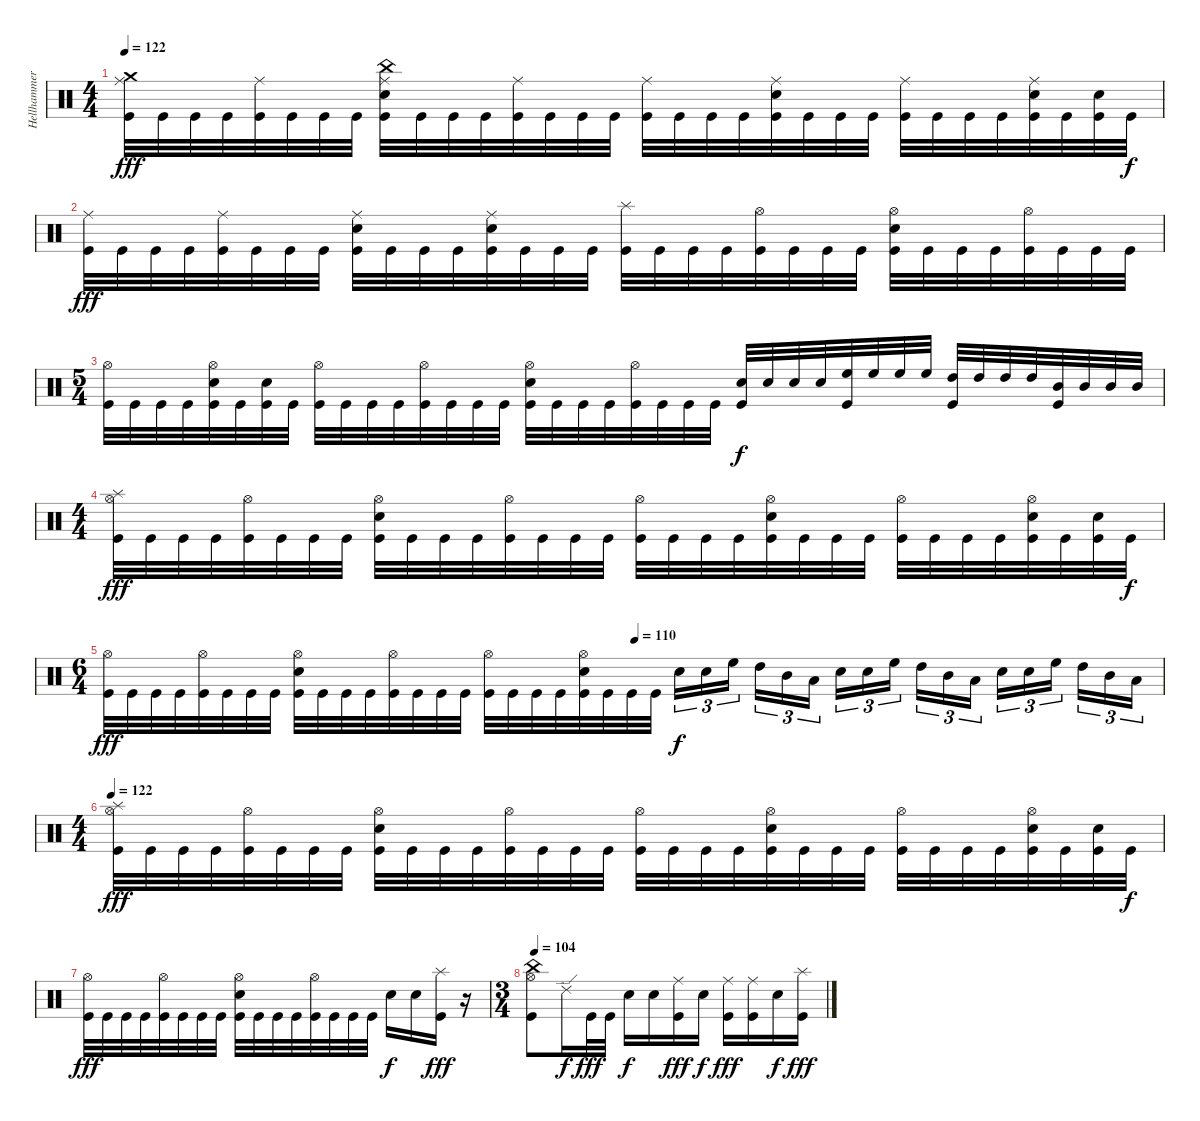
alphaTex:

\track ("Hellhammer" "Hellhammer") {instrument percussion}
\staff {score}
\articulation defaults
\ts (4 4)
\tempo 124
\tempo 122
\clef neutral
\ks c
("Crash medium (hit)" "Ride (middle)" "Kick (hit)").32{dy fff} "Kick (hit)".32 "Kick (hit)".32 "Kick (hit)".32 ("Ride (middle)" "Kick (hit)").32 "Kick (hit)".32 "Kick (hit)".32 "Kick (hit)".32 ("China (hit)" "Ride (middle)" "Electric Snare (hit)" "Kick (hit)").32 "Kick (hit)".32 "Kick (hit)".32 "Kick (hit)".32 ("Ride (middle)" "Kick (hit)").32 "Kick (hit)".32 "Kick (hit)".32 "Kick (hit)".32 ("Ride (middle)" "Kick (hit)").32 "Kick (hit)".32 "Kick (hit)".32 "Kick (hit)".32 ("Ride (middle)" "Electric Snare (hit)" "Kick (hit)").32 "Kick (hit)".32 "Kick (hit)".32 "Kick (hit)".32 ("Ride (middle)" "Kick (hit)").32 "Kick (hit)".32 "Kick (hit)".32 "Kick (hit)".32 ("Ride (middle)" "Electric Snare (hit)" "Kick (hit)").32 "Kick (hit)".32 ("Electric Snare (hit)" "Kick (hit)").32 "Kick (hit)".32{dy f} |
("Ride (middle)" "Kick (hit)").32{dy fff} "Kick (hit)".32 "Kick (hit)".32 "Kick (hit)".32 ("Ride (middle)" "Kick (hit)").32 "Kick (hit)".32 "Kick (hit)".32 "Kick (hit)".32 ("Ride (middle)" "Electric Snare (hit)" "Kick (hit)").32 "Kick (hit)".32 "Kick (hit)".32 "Kick (hit)".32 ("Ride (middle)" "Electric Snare (hit)" "Kick (hit)").32 "Kick (hit)".32 "Kick (hit)".32 "Kick (hit)".32 ("Splash (hit)" "Kick (hit)").32 "Kick (hit)".32 "Kick (hit)".32 "Kick (hit)".32 ("Hi-Hat (open)" "Kick (hit)").32 "Kick (hit)".32 "Kick (hit)".32 "Kick (hit)".32 ("Hi-Hat (open)" "Electric Snare (hit)" "Kick (hit)").32 "Kick (hit)".32 "Kick (hit)".32 "Kick (hit)".32 ("Hi-Hat (open)" "Kick (hit)").32 "Kick (hit)".32 "Kick (hit)".32 "Kick (hit)".32 |
\ts (5 4)
("Hi-Hat (open)" "Kick (hit)").32 "Kick (hit)".32 "Kick (hit)".32 "Kick (hit)".32 ("Hi-Hat (open)" "Electric Snare (hit)" "Kick (hit)").32 "Kick (hit)".32 ("Electric Snare (hit)" "Kick (hit)").32 "Kick (hit)".32 ("Hi-Hat (open)" "Kick (hit)").32 "Kick (hit)".32 "Kick (hit)".32 "Kick (hit)".32 ("Hi-Hat (open)" "Kick (hit)").32 "Kick (hit)".32 "Kick (hit)".32 "Kick (hit)".32 ("Hi-Hat (open)" "Electric Snare (hit)" "Kick (hit)").32 "Kick (hit)".32 "Kick (hit)".32 "Kick (hit)".32 ("Hi-Hat (open)" "Kick (hit)").32 "Kick (hit)".32 "Kick (hit)".32 "Kick (hit)".32 ("Snare (hit) 2" "Kick (hit)").32{dy f} "Snare (hit) 2".32 "Snare (hit) 2".32 "Snare (hit) 2".32 ("High Floor Tom (hit)" "Kick (hit)").32 "High Floor Tom (hit)".32 "High Floor Tom (hit)".32 "High Floor Tom (hit)".32 ("High Tom (hit)" "Kick (hit)").32 "High Tom (hit)".32 "High Tom (hit)".32 "High Tom (hit)".32 ("Mid Tom (hit)" "Kick (hit)").32 "Mid Tom (hit)".32 "Mid Tom (hit)".32 "Mid Tom (hit)".32 |
\ts (4 4)
("Splash (hit)" "Hi-Hat (open)" "Kick (hit)").32{dy fff} "Kick (hit)".32 "Kick (hit)".32 "Kick (hit)".32 ("Hi-Hat (open)" "Kick (hit)").32 "Kick (hit)".32 "Kick (hit)".32 "Kick (hit)".32 ("Hi-Hat (open)" "Electric Snare (hit)" "Kick (hit)").32 "Kick (hit)".32 "Kick (hit)".32 "Kick (hit)".32 ("Hi-Hat (open)" "Kick (hit)").32 "Kick (hit)".32 "Kick (hit)".32 "Kick (hit)".32 ("Hi-Hat (open)" "Kick (hit)").32 "Kick (hit)".32 "Kick (hit)".32 "Kick (hit)".32 ("Hi-Hat (open)" "Electric Snare (hit)" "Kick (hit)").32 "Kick (hit)".32 "Kick (hit)".32 "Kick (hit)".32 ("Hi-Hat (open)" "Kick (hit)").32 "Kick (hit)".32 "Kick (hit)".32 "Kick (hit)".32 ("Hi-Hat (open)" "Electric Snare (hit)" "Kick (hit)").32 "Kick (hit)".32 ("Electric Snare (hit)" "Kick (hit)").32 "Kick (hit)".32{dy f} |
\ts (6 4)
\tempo (110 0.5)
("Hi-Hat (open)" "Kick (hit)").32{dy fff} "Kick (hit)".32 "Kick (hit)".32 "Kick (hit)".32 ("Hi-Hat (open)" "Kick (hit)").32 "Kick (hit)".32 "Kick (hit)".32 "Kick (hit)".32 ("Hi-Hat (open)" "Electric Snare (hit)" "Kick (hit)").32 "Kick (hit)".32 "Kick (hit)".32 "Kick (hit)".32 ("Hi-Hat (open)" "Kick (hit)").32 "Kick (hit)".32 "Kick (hit)".32 "Kick (hit)".32 ("Hi-Hat (open)" "Kick (hit)").32 "Kick (hit)".32 "Kick (hit)".32 "Kick (hit)".32 ("Hi-Hat (open)" "Electric Snare (hit)" "Kick (hit)").32 "Kick (hit)".32 "Kick (hit)".32 "Kick (hit)".32 "Electric Snare (hit)".16{tu (3 2) dy f} "Electric Snare (hit)".16{tu (3 2)} "High Floor Tom (hit)".16{tu (3 2)} "High Tom (hit)".16{tu (3 2)} "Mid Tom (hit)".16{tu (3 2)} "Low Tom (hit)".16{tu (3 2)} "Electric Snare (hit)".16{tu (3 2)} "Electric Snare (hit)".16{tu (3 2)} "High Floor Tom (hit)".16{tu (3 2)} "High Tom (hit)".16{tu (3 2)} "Mid Tom (hit)".16{tu (3 2)} "Low Tom (hit)".16{tu (3 2)} "Electric Snare (hit)".16{tu (3 2)} "Electric Snare (hit)".16{tu (3 2)} "High Floor Tom (hit)".16{tu (3 2)} "High Tom (hit)".16{tu (3 2)} "Mid Tom (hit)".16{tu (3 2)} "Low Tom (hit)".16{tu (3 2)} |
\ts (4 4)
\tempo 122
("Splash (hit)" "Hi-Hat (open)" "Kick (hit)").32{dy fff} "Kick (hit)".32 "Kick (hit)".32 "Kick (hit)".32 ("Hi-Hat (open)" "Kick (hit)").32 "Kick (hit)".32 "Kick (hit)".32 "Kick (hit)".32 ("Hi-Hat (open)" "Electric Snare (hit)" "Kick (hit)").32 "Kick (hit)".32 "Kick (hit)".32 "Kick (hit)".32 ("Hi-Hat (open)" "Kick (hit)").32 "Kick (hit)".32 "Kick (hit)".32 "Kick (hit)".32 ("Hi-Hat (open)" "Kick (hit)").32 "Kick (hit)".32 "Kick (hit)".32 "Kick (hit)".32 ("Hi-Hat (open)" "Electric Snare (hit)" "Kick (hit)").32 "Kick (hit)".32 "Kick (hit)".32 "Kick (hit)".32 ("Hi-Hat (open)" "Kick (hit)").32 "Kick (hit)".32 "Kick (hit)".32 "Kick (hit)".32 ("Hi-Hat (open)" "Electric Snare (hit)" "Kick (hit)").32 "Kick (hit)".32 ("Electric Snare (hit)" "Kick (hit)").32 "Kick (hit)".32{dy f} |
("Hi-Hat (open)" "Kick (hit)").32{dy fff} "Kick (hit)".32 "Kick (hit)".32 "Kick (hit)".32 ("Hi-Hat (open)" "Kick (hit)").32 "Kick (hit)".32 "Kick (hit)".32 "Kick (hit)".32 ("Hi-Hat (open)" "Electric Snare (hit)" "Kick (hit)").32 "Kick (hit)".32 "Kick (hit)".32 "Kick (hit)".32 ("Hi-Hat (open)" "Kick (hit)").32 "Kick (hit)".32 "Kick (hit)".32 "Kick (hit)".32 "Electric Snare (hit)".16{dy f} "Electric Snare (hit)".16 ("Splash (hit)" "Kick (hit)").16{dy fff} r.16 |
\ts (3 4)
\tempo 104
("China (hit)" "Hi-Hat (open)" "Kick (hit)").8 "Ride (edge) 2".16{dy f} "Kick (hit)".32{dy fff} "Kick (hit)".32 "Electric Snare (hit)".16{dy f} "Electric Snare (hit)".16 ("Ride (middle)" "Kick (hit)").16{dy fff} "Electric Snare (hit)".16{dy f} ("Ride (middle)" "Kick (hit)").16{dy fff} ("Ride (middle)" "Kick (hit)").16 "Electric Snare (hit)".16{dy f} ("Splash (hit)" "Kick (hit)").16{dy fff}
